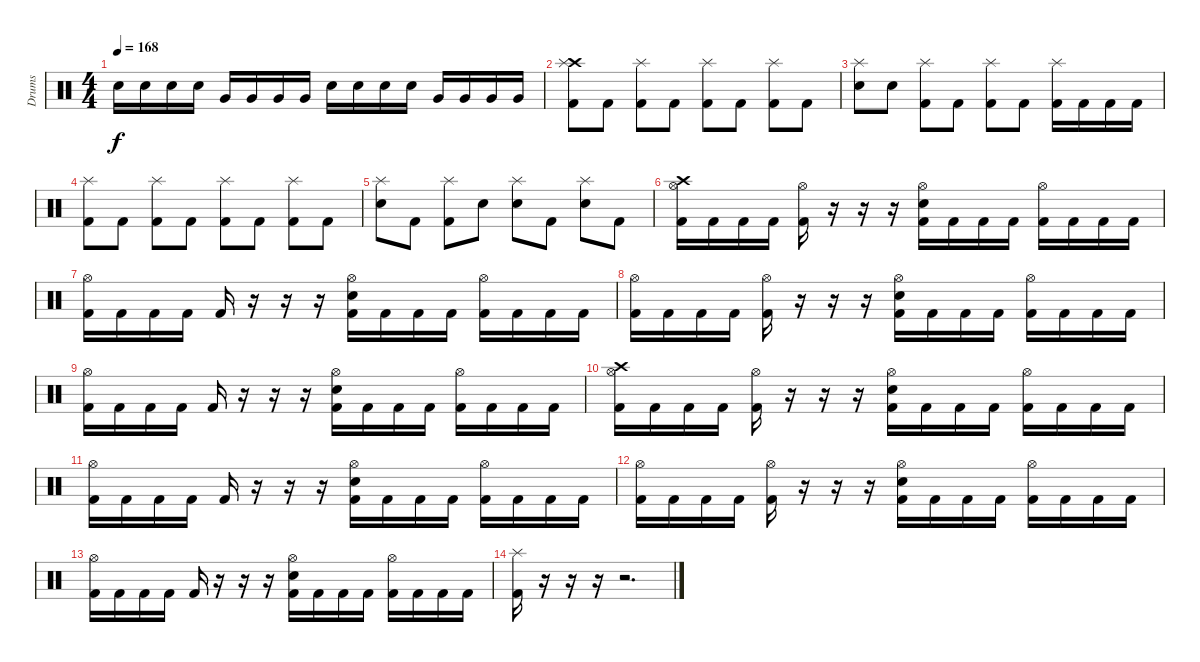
\track ("Drums" "Drums") {instrument percussion}
\staff {score}
\articulation defaults
\ts (4 4)
\tempo 168
\clef neutral
\ks c "Electric Snare (hit)".16{dy f} "Electric Snare (hit)".16 "Electric Snare (hit)".16 "Electric Snare (hit)".16 "Very Low Tom (hit)".16 "Very Low Tom (hit)".16 "Very Low Tom (hit)".16 "Very Low Tom (hit)".16 "Electric Snare (hit)".16 "Electric Snare (hit)".16 "Electric Snare (hit)".16 "Electric Snare (hit)".16 "Very Low Tom (hit)".16 "Very Low Tom (hit)".16 "Very Low Tom (hit)".16 "Very Low Tom (hit)".16
|
("Crash high (hit)" "Kick (hit) 2" "Splash (hit)").8 "Kick (hit) 2".8 ("Kick (hit) 2" "Splash (hit)").8 "Kick (hit) 2".8 ("Kick (hit) 2" "Splash (hit)").8 "Kick (hit) 2".8 ("Kick (hit) 2" "Splash (hit)").8 "Kick (hit) 2".8 |
("Electric Snare (hit)" "Splash (hit)").8 "Electric Snare (hit)".8 ("Kick (hit) 2" "Splash (hit)").8 "Kick (hit) 2".8 ("Kick (hit) 2" "Splash (hit)").8 "Kick (hit) 2".8 ("Kick (hit) 2" "Splash (hit)").16 "Kick (hit) 2".16 "Kick (hit) 2".16 "Kick (hit) 2".16 |
("Kick (hit) 2" "Splash (hit)").8 "Kick (hit) 2".8 ("Kick (hit) 2" "Splash (hit)").8 "Kick (hit) 2".8 ("Kick (hit) 2" "Splash (hit)").8 "Kick (hit) 2".8 ("Kick (hit) 2" "Splash (hit)").8 "Kick (hit) 2".8 |
("Electric Snare (hit)" "Splash (hit)").8 "Kick (hit) 2".8 ("Kick (hit) 2" "Splash (hit)").8 "Electric Snare (hit)".8 ("Electric Snare (hit)" "Splash (hit)").8 "Kick (hit) 2".8 ("Electric Snare (hit)" "Splash (hit)").8 "Kick (hit) 2".8 |
("Crash high (hit)" "Kick (hit) 2" "Hi-Hat (open)").16 "Kick (hit) 2".16 "Kick (hit) 2".16 "Kick (hit) 2".16 ("Kick (hit) 2" "Hi-Hat (open)").16 r.16 r.16 r.16 ("Electric Snare (hit)" "Kick (hit) 2" "Hi-Hat (open)").16 "Kick (hit) 2".16 "Kick (hit) 2".16 "Kick (hit) 2".16 ("Kick (hit) 2" "Hi-Hat (open)").16 "Kick (hit) 2".16 "Kick (hit) 2".16 "Kick (hit) 2".16 |
("Kick (hit) 2" "Hi-Hat (open)").16 "Kick (hit) 2".16 "Kick (hit) 2".16 "Kick (hit) 2".16 "Kick (hit) 2".16 r.16 r.16 r.16 ("Electric Snare (hit)" "Kick (hit) 2" "Hi-Hat (open)").16 "Kick (hit) 2".16 "Kick (hit) 2".16 "Kick (hit) 2".16 ("Kick (hit) 2" "Hi-Hat (open)").16 "Kick (hit) 2".16 "Kick (hit) 2".16 "Kick (hit) 2".16 |
("Kick (hit) 2" "Hi-Hat (open)").16 "Kick (hit) 2".16 "Kick (hit) 2".16 "Kick (hit) 2".16 ("Kick (hit) 2" "Hi-Hat (open)").16 r.16 r.16 r.16 ("Electric Snare (hit)" "Kick (hit) 2" "Hi-Hat (open)").16 "Kick (hit) 2".16 "Kick (hit) 2".16 "Kick (hit) 2".16 ("Kick (hit) 2" "Hi-Hat (open)").16 "Kick (hit) 2".16 "Kick (hit) 2".16 "Kick (hit) 2".16 |
("Kick (hit) 2" "Hi-Hat (open)").16 "Kick (hit) 2".16 "Kick (hit) 2".16 "Kick (hit) 2".16 "Kick (hit) 2".16 r.16 r.16 r.16 ("Electric Snare (hit)" "Kick (hit) 2" "Hi-Hat (open)").16 "Kick (hit) 2".16 "Kick (hit) 2".16 "Kick (hit) 2".16 ("Kick (hit) 2" "Hi-Hat (open)").16 "Kick (hit) 2".16 "Kick (hit) 2".16 "Kick (hit) 2".16 |
("Crash high (hit)" "Kick (hit) 2" "Hi-Hat (open)").16 "Kick (hit) 2".16 "Kick (hit) 2".16 "Kick (hit) 2".16 ("Kick (hit) 2" "Hi-Hat (open)").16 r.16 r.16 r.16 ("Electric Snare (hit)" "Kick (hit) 2" "Hi-Hat (open)").16 "Kick (hit) 2".16 "Kick (hit) 2".16 "Kick (hit) 2".16 ("Kick (hit) 2" "Hi-Hat (open)").16 "Kick (hit) 2".16 "Kick (hit) 2".16 "Kick (hit) 2".16 |
("Kick (hit) 2" "Hi-Hat (open)").16 "Kick (hit) 2".16 "Kick (hit) 2".16 "Kick (hit) 2".16 "Kick (hit) 2".16 r.16 r.16 r.16 ("Electric Snare (hit)" "Kick (hit) 2" "Hi-Hat (open)").16 "Kick (hit) 2".16 "Kick (hit) 2".16 "Kick (hit) 2".16 ("Kick (hit) 2" "Hi-Hat (open)").16 "Kick (hit) 2".16 "Kick (hit) 2".16 "Kick (hit) 2".16 |
("Kick (hit) 2" "Hi-Hat (open)").16 "Kick (hit) 2".16 "Kick (hit) 2".16 "Kick (hit) 2".16 ("Kick (hit) 2" "Hi-Hat (open)").16 r.16 r.16 r.16 ("Electric Snare (hit)" "Kick (hit) 2" "Hi-Hat (open)").16 "Kick (hit) 2".16 "Kick (hit) 2".16 "Kick (hit) 2".16 ("Kick (hit) 2" "Hi-Hat (open)").16 "Kick (hit) 2".16 "Kick (hit) 2".16 "Kick (hit) 2".16 |
("Kick (hit) 2" "Hi-Hat (open)").16 "Kick (hit) 2".16 "Kick (hit) 2".16 "Kick (hit) 2".16 "Kick (hit) 2".16 r.16 r.16 r.16 ("Electric Snare (hit)" "Kick (hit) 2" "Hi-Hat (open)").16 "Kick (hit) 2".16 "Kick (hit) 2".16 "Kick (hit) 2".16 ("Kick (hit) 2" "Hi-Hat (open)").16 "Kick (hit) 2".16 "Kick (hit) 2".16 "Kick (hit) 2".16 |
("Splash (hit)" "Kick (hit) 2").16 r.16 r.16 r.16 r.2{d}
